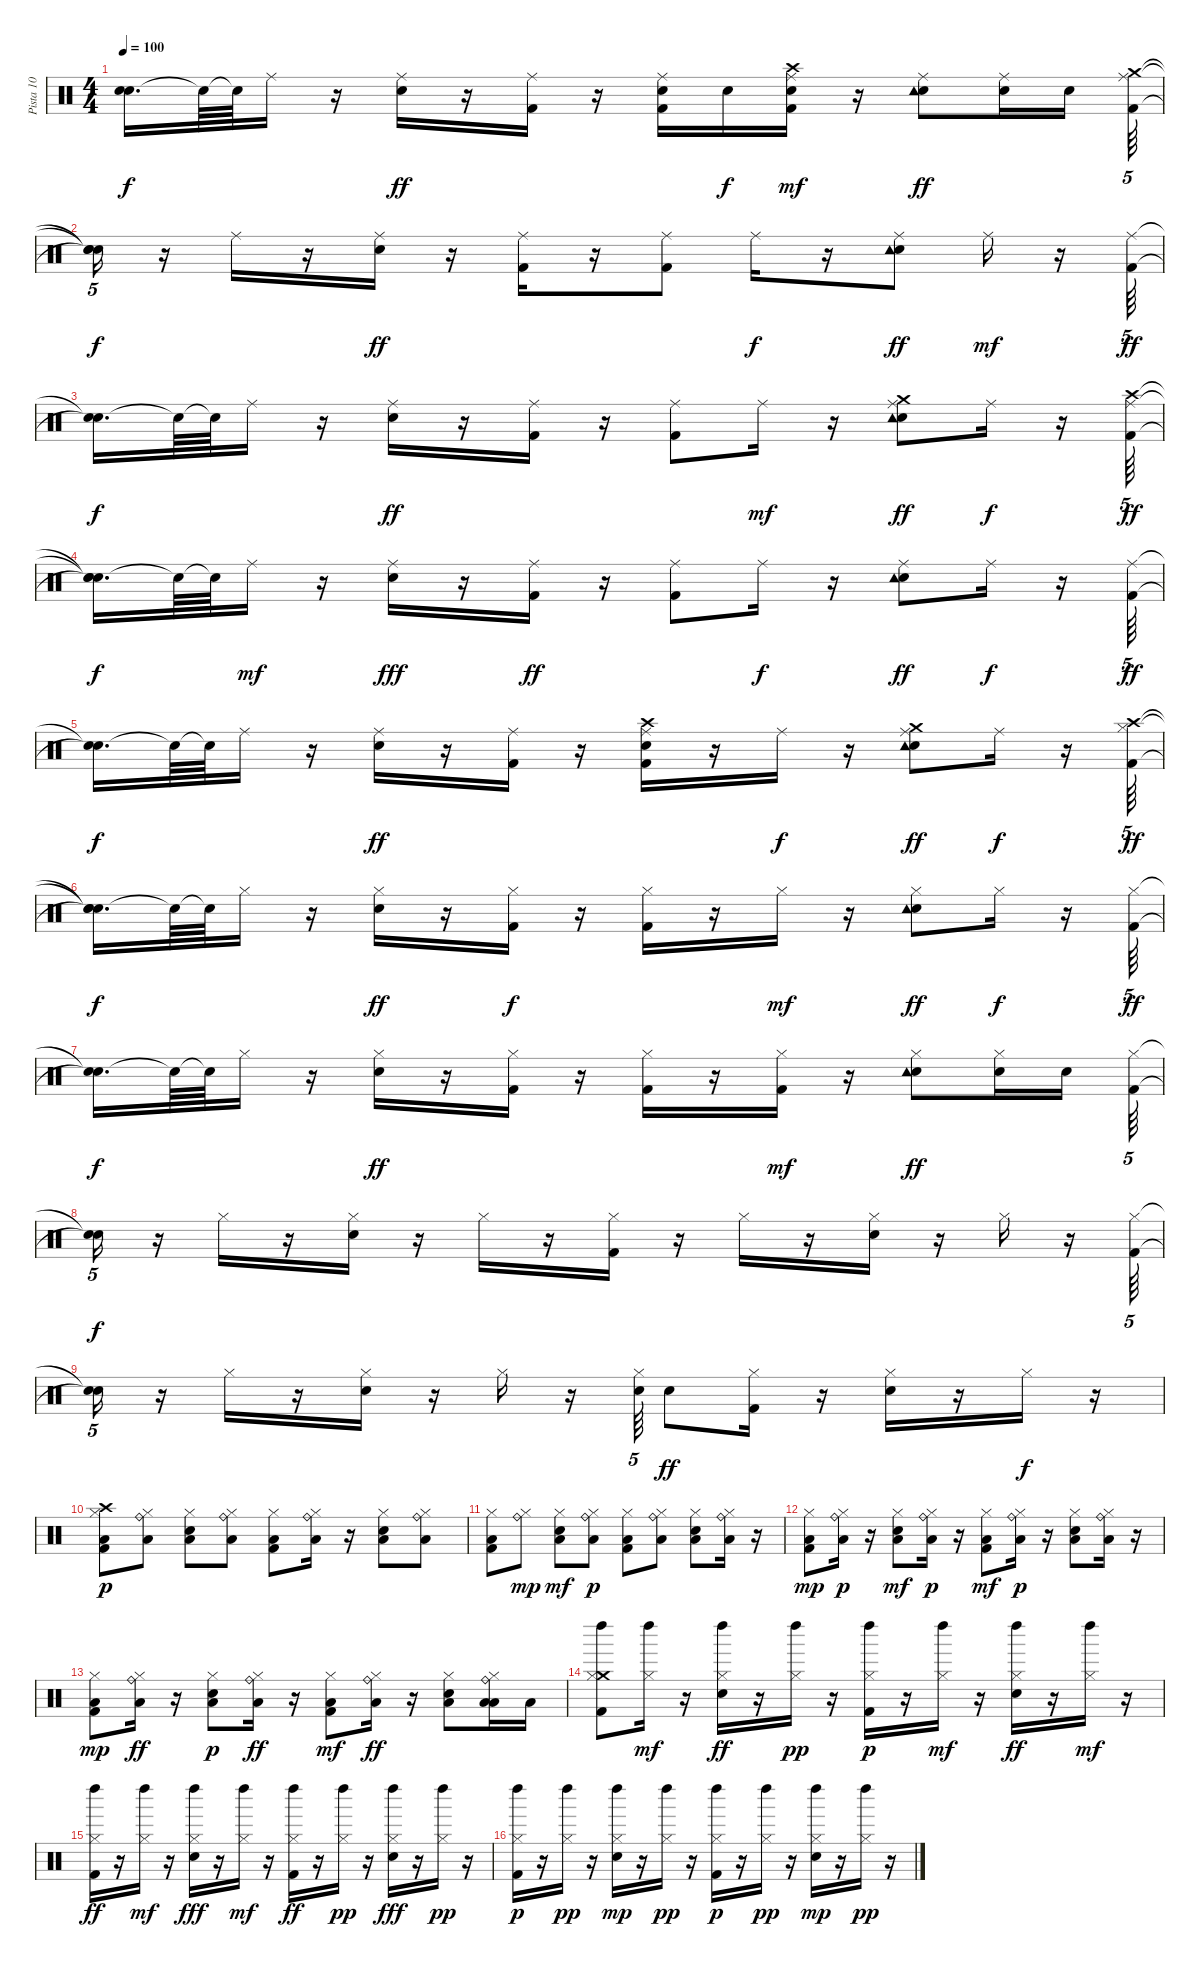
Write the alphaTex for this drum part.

\track ("Pista 10" "Pista 10") {instrument percussion}
\staff {score}
\articulation defaults
\ts (4 4)
\tempo 100
\clef neutral
\ks c
("Snare (hit)"{t} "Snare (hit)"{t}).16{d dy f} "Snare (hit)"{t}.64 "Snare (hit)"{t}.64 "Ride (middle)".16 r.16 ("Ride (middle)" "Snare (hit) 2").16{dy ff} r.16 ("Ride (middle)" "Kick (hit) 2").16 r.16 ("Snare (hit) 2" "Ride (middle)" "Kick (hit) 2").16 "Snare (hit) 2".16{dy f} ("Ride (middle)" "Crash high (hit)" "Kick (hit) 2" "Snare (hit) 2").16{dy mf} r.16 ("Ride (middle)" "Snare (hit) 2" "Tambourine (hit)").8{dy ff} ("Ride (middle)" "Snare (hit) 2").16 "Snare (hit) 2".16 ("Crash medium (hit)" "Ride (middle)" "Kick (hit) 2").64{tu (5 4)} |
("Snare (hit)"{t} "Snare (hit)"{t} "Snare (hit)"{t}).16{tu (5 4) dy f} r.16 "Ride (middle)".16 r.16 ("Ride (middle)" "Snare (hit) 2").16{dy ff} r.16 ("Ride (middle)" "Kick (hit) 2").16 r.16 ("Ride (middle)" "Kick (hit) 2").8 "Ride (middle)".16{dy f} r.16 ("Ride (middle)" "Snare (hit) 2" "Tambourine (hit)").8{dy ff} "Ride (middle)".16{dy mf} r.16 ("Ride (middle)" "Kick (hit) 2").64{tu (5 4) dy ff} |
("Snare (hit)"{t} "Snare (hit)"{t}).16{d dy f} "Snare (hit)"{t}.64 "Snare (hit)"{t}.64 "Ride (middle)".16 r.16 ("Ride (middle)" "Snare (hit) 2").16{dy ff} r.16 ("Ride (middle)" "Kick (hit) 2").16 r.16 ("Ride (middle)" "Kick (hit) 2").8 "Ride (middle)".16{dy mf} r.16 ("Crash medium (hit)" "Ride (middle)" "Snare (hit) 2" "Tambourine (hit)").8{dy ff} "Ride (middle)".16{dy f} r.16 ("Crash high (hit)" "Ride (middle)" "Kick (hit) 2").64{tu (5 4) dy ff} |
("Snare (hit)"{t} "Snare (hit)"{t} "Snare (hit)"{t}).16{d dy f} "Snare (hit)"{t}.64 "Snare (hit)"{t}.64 "Ride (middle)".16{dy mf} r.16 ("Ride (middle)" "Snare (hit) 2").16{dy fff} r.16 ("Ride (middle)" "Kick (hit) 2").16{dy ff} r.16 ("Ride (middle)" "Kick (hit) 2").8 "Ride (middle)".16{dy f} r.16 ("Ride (middle)" "Snare (hit) 2" "Tambourine (hit)").8{dy ff} "Ride (middle)".16{dy f} r.16 ("Ride (middle)" "Kick (hit) 2").64{tu (5 4) dy ff} |
("Snare (hit)"{t} "Snare (hit)"{t}).16{d dy f} "Snare (hit)"{t}.64 "Snare (hit)"{t}.64 "Ride (middle)".16 r.16 ("Ride (middle)" "Snare (hit) 2").16{dy ff} r.16 ("Ride (middle)" "Kick (hit) 2").16 r.16 ("Crash high (hit)" "Snare (hit) 2" "Ride (middle)" "Kick (hit) 2").16 r.16 "Ride (middle)".16{dy f} r.16 ("Crash medium (hit)" "Ride (middle)" "Snare (hit) 2" "Tambourine (hit)").8{dy ff} "Ride (middle)".16{dy f} r.16 ("Crash high (hit)" "Hi-Hat (closed)" "Kick (hit) 2").64{tu (5 4) dy ff} |
("Snare (hit)"{t} "Snare (hit)"{t} "Snare (hit)"{t}).16{d dy f} "Snare (hit)"{t}.64 "Snare (hit)"{t}.64 "Hi-Hat (closed)".16 r.16 ("Hi-Hat (closed)" "Snare (hit) 2").16{dy ff} r.16 ("Hi-Hat (closed)" "Kick (hit) 2").16{dy f} r.16 ("Hi-Hat (closed)" "Kick (hit) 2").16 r.16 "Hi-Hat (closed)".16{dy mf} r.16 ("Hi-Hat (closed)" "Snare (hit) 2" "Tambourine (hit)").8{dy ff} "Hi-Hat (closed)".16{dy f} r.16 ("Hi-Hat (closed)" "Kick (hit) 2").64{tu (5 4) dy ff} |
("Snare (hit)"{t} "Snare (hit)"{t}).16{d dy f} "Snare (hit)"{t}.64 "Snare (hit)"{t}.64 "Hi-Hat (closed)".16 r.16 ("Hi-Hat (closed)" "Snare (hit) 2").16{dy ff} r.16 ("Hi-Hat (closed)" "Kick (hit) 2").16 r.16 ("Hi-Hat (closed)" "Kick (hit) 2").16 r.16 ("Kick (hit) 2" "Hi-Hat (closed)").16{dy mf} r.16 ("Hi-Hat (closed)" "Snare (hit) 2" "Tambourine (hit)").8{dy ff} ("Snare (hit) 2" "Hi-Hat (closed)").16 "Snare (hit) 2".16 ("Hi-Hat (closed)" "Kick (hit) 2").64{tu (5 4)} |
("Snare (hit)"{t} "Snare (hit)"{t}).16{tu (5 4) dy f} r.16 "Hi-Hat (closed)".16 r.16 ("Hi-Hat (closed)" "Snare (hit) 2").16 r.16 "Hi-Hat (closed)".16 r.16 ("Hi-Hat (closed)" "Kick (hit) 2").16 r.16 "Hi-Hat (closed)".16 r.16 ("Hi-Hat (closed)" "Snare (hit) 2").16 r.16 "Hi-Hat (closed)".16 r.16 ("Hi-Hat (closed)" "Kick (hit) 2").64{tu (5 4)} |
("Snare (hit)"{t} "Snare (hit)"{t}).16{tu (5 4)} r.16 "Hi-Hat (closed)".16 r.16 ("Hi-Hat (closed)" "Snare (hit) 2").16 r.16 "Hi-Hat (closed)".16 r.16 ("Hi-Hat (closed)" "Snare (hit) 2").64{tu (5 4)} "Snare (hit) 2".8{dy ff} ("Kick (hit) 2" "Hi-Hat (closed)").16 r.16 ("Hi-Hat (closed)" "Snare (hit) 2").16 r.16 "Hi-Hat (closed)".16{dy f} r.16 |
("Crash high (hit)" "Hi-Hat (closed)" "Kick (hit) 2" "Low Floor Tom (hit)").8{dy p} ("Ride (bell)" "Low Floor Tom (hit)" "Hi-Hat (closed)").8 ("Hi-Hat (closed)" "Snare (hit) 2" "Low Floor Tom (hit)").8 ("Ride (bell)" "Low Floor Tom (hit)" "Hi-Hat (closed)").8 ("Hi-Hat (closed)" "Kick (hit) 2" "Low Floor Tom (hit)").8 ("Ride (bell)" "Low Floor Tom (hit)" "Hi-Hat (closed)").16 r.16 ("Hi-Hat (closed)" "Snare (hit) 2" "Low Floor Tom (hit)").8 ("Ride (bell)" "Low Floor Tom (hit)" "Hi-Hat (closed)").8 |
("Hi-Hat (closed)" "Kick (hit) 2" "Low Floor Tom (hit)").8 ("Ride (bell)" "Hi-Hat (closed)").8{dy mp} ("Hi-Hat (closed)" "Snare (hit) 2" "Low Floor Tom (hit)").8{dy mf} ("Ride (bell)" "Low Floor Tom (hit)" "Hi-Hat (closed)").8{dy p} ("Hi-Hat (closed)" "Kick (hit) 2" "Low Floor Tom (hit)").8 ("Ride (bell)" "Low Floor Tom (hit)" "Hi-Hat (closed)").8 ("Hi-Hat (closed)" "Snare (hit) 2" "Low Floor Tom (hit)").8 ("Ride (bell)" "Low Floor Tom (hit)" "Hi-Hat (closed)").16 r.16 |
("Hi-Hat (closed)" "Kick (hit) 2" "Low Floor Tom (hit)").8{dy mp} ("Ride (bell)" "Low Floor Tom (hit)" "Hi-Hat (closed)").16{dy p} r.16 ("Hi-Hat (closed)" "Snare (hit) 2" "Low Floor Tom (hit)").8{dy mf} ("Ride (bell)" "Low Floor Tom (hit)" "Hi-Hat (closed)").16{dy p} r.16 ("Hi-Hat (closed)" "Kick (hit) 2" "Low Floor Tom (hit)").8{dy mf} ("Ride (bell)" "Low Floor Tom (hit)" "Hi-Hat (closed)").16{dy p} r.16 ("Hi-Hat (closed)" "Snare (hit) 2" "Low Floor Tom (hit)").8 ("Ride (bell)" "Low Floor Tom (hit)" "Hi-Hat (closed)").16 r.16 |
("Hi-Hat (closed)" "Kick (hit) 2" "Low Floor Tom (hit)").8{dy mp} ("Ride (bell)" "Low Floor Tom (hit)" "Hi-Hat (closed)").16{dy ff} r.16 ("Hi-Hat (closed)" "Snare (hit) 2" "Low Floor Tom (hit)").8{dy p} ("Ride (bell)" "Low Floor Tom (hit)" "Hi-Hat (closed)").16{dy ff} r.16 ("Hi-Hat (closed)" "Kick (hit) 2" "Low Floor Tom (hit)").8{dy mf} ("Ride (bell)" "Low Floor Tom (hit)" "Hi-Hat (closed)").16{dy ff} r.16 ("Hi-Hat (closed)" "Snare (hit) 2" "Low Floor Tom (hit)").8 ("Low Tom (hit)" "Ride (bell)" "Low Floor Tom (hit)" "Hi-Hat (closed)").16 "Low Tom (hit)".16 |
("Crash medium (hit)" "Kick (hit) 2" "Left Maraca (hit)" "Hi-Hat (closed)").8 ("Left Maraca (hit)" "Hi-Hat (closed)").16{dy mf} r.16 ("Snare (hit) 2" "Left Maraca (hit)" "Hi-Hat (closed)").16{dy ff} r.16 ("Left Maraca (hit)" "Hi-Hat (closed)").16{dy pp} r.16 ("Kick (hit) 2" "Left Maraca (hit)" "Hi-Hat (closed)").16{dy p} r.16 ("Left Maraca (hit)" "Hi-Hat (closed)").16{dy mf} r.16 ("Snare (hit) 2" "Left Maraca (hit)" "Hi-Hat (closed)").16{dy ff} r.16 ("Left Maraca (hit)" "Hi-Hat (closed)").16{dy mf} r.16 |
("Kick (hit) 2" "Left Maraca (hit)" "Hi-Hat (closed)").16{dy ff} r.16 ("Left Maraca (hit)" "Hi-Hat (closed)").16{dy mf} r.16 ("Snare (hit) 2" "Left Maraca (hit)" "Hi-Hat (closed)").16{dy fff} r.16 ("Left Maraca (hit)" "Hi-Hat (closed)").16{dy mf} r.16 ("Kick (hit) 2" "Left Maraca (hit)" "Hi-Hat (closed)").16{dy ff} r.16 ("Left Maraca (hit)" "Hi-Hat (closed)").16{dy pp} r.16 ("Snare (hit) 2" "Left Maraca (hit)" "Hi-Hat (closed)").16{dy fff} r.16 ("Hi-Hat (closed)" "Left Maraca (hit)").16{dy pp} r.16 |
("Kick (hit) 2" "Hi-Hat (closed)" "Left Maraca (hit)").16{dy p} r.16 ("Hi-Hat (closed)" "Left Maraca (hit)").16{dy pp} r.16 ("Snare (hit) 2" "Hi-Hat (closed)" "Left Maraca (hit)").16{dy mp} r.16 ("Hi-Hat (closed)" "Left Maraca (hit)").16{dy pp} r.16 ("Kick (hit) 2" "Hi-Hat (closed)" "Left Maraca (hit)").16{dy p} r.16 ("Hi-Hat (closed)" "Left Maraca (hit)").16{dy pp} r.16 ("Snare (hit) 2" "Hi-Hat (closed)" "Left Maraca (hit)").16{dy mp} r.16 ("Hi-Hat (closed)" "Left Maraca (hit)").16{dy pp} r.16
